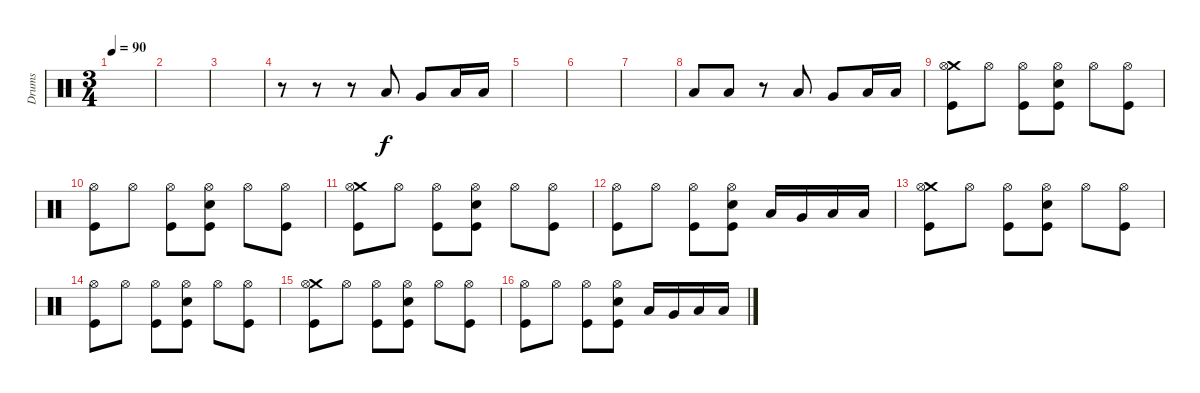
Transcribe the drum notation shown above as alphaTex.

\track ("Drums" "Drums") {instrument percussion}
\staff {score}
\articulation defaults
\ts (3 4)
\tempo 90
\clef neutral
\ks c
|
|
|
r.8 r.8 r.8 "Low Tom (hit)".8 "Very Low Tom (hit)".8 "Low Floor Tom (hit)".16 "Low Floor Tom (hit)".16 |
|
|
|
"Low Floor Tom (hit)".8 "Low Floor Tom (hit)".8 r.8 "Low Tom (hit)".8 "Very Low Tom (hit)".8 "Low Floor Tom (hit)".16 "Low Floor Tom (hit)".16 |
("Crash medium (hit)" "Hi-Hat (open)" "Kick (hit)").8 "Hi-Hat (open)".8 ("Hi-Hat (open)" "Kick (hit)").8 ("Hi-Hat (open)" "Electric Snare (hit)" "Kick (hit)").8 "Hi-Hat (open)".8 ("Hi-Hat (open)" "Kick (hit)").8 |
("Hi-Hat (open)" "Kick (hit)").8 "Hi-Hat (open)".8 ("Hi-Hat (open)" "Kick (hit)").8 ("Hi-Hat (open)" "Electric Snare (hit)" "Kick (hit)").8 "Hi-Hat (open)".8 ("Hi-Hat (open)" "Kick (hit)").8 |
("Crash medium (hit)" "Hi-Hat (open)" "Kick (hit)").8 "Hi-Hat (open)".8 ("Hi-Hat (open)" "Kick (hit)").8 ("Hi-Hat (open)" "Electric Snare (hit)" "Kick (hit)").8 "Hi-Hat (open)".8 ("Hi-Hat (open)" "Kick (hit)").8 |
("Hi-Hat (open)" "Kick (hit)").8 "Hi-Hat (open)".8 ("Hi-Hat (open)" "Kick (hit)").8 ("Hi-Hat (open)" "Electric Snare (hit)" "Kick (hit)").8 "Low Tom (hit)".16 "Very Low Tom (hit)".16 "Low Floor Tom (hit)".16 "Low Floor Tom (hit)".16 |
("Crash medium (hit)" "Hi-Hat (open)" "Kick (hit)").8 "Hi-Hat (open)".8 ("Hi-Hat (open)" "Kick (hit)").8 ("Hi-Hat (open)" "Electric Snare (hit)" "Kick (hit)").8 "Hi-Hat (open)".8 ("Hi-Hat (open)" "Kick (hit)").8 |
("Hi-Hat (open)" "Kick (hit)").8 "Hi-Hat (open)".8 ("Hi-Hat (open)" "Kick (hit)").8 ("Hi-Hat (open)" "Electric Snare (hit)" "Kick (hit)").8 "Hi-Hat (open)".8 ("Hi-Hat (open)" "Kick (hit)").8 |
("Crash medium (hit)" "Hi-Hat (open)" "Kick (hit)").8 "Hi-Hat (open)".8 ("Hi-Hat (open)" "Kick (hit)").8 ("Hi-Hat (open)" "Electric Snare (hit)" "Kick (hit)").8 "Hi-Hat (open)".8 ("Hi-Hat (open)" "Kick (hit)").8 |
("Hi-Hat (open)" "Kick (hit)").8 "Hi-Hat (open)".8 ("Hi-Hat (open)" "Kick (hit)").8 ("Hi-Hat (open)" "Electric Snare (hit)" "Kick (hit)").8 "Low Tom (hit)".16 "Very Low Tom (hit)".16 "Low Floor Tom (hit)".16 "Low Floor Tom (hit)".16
